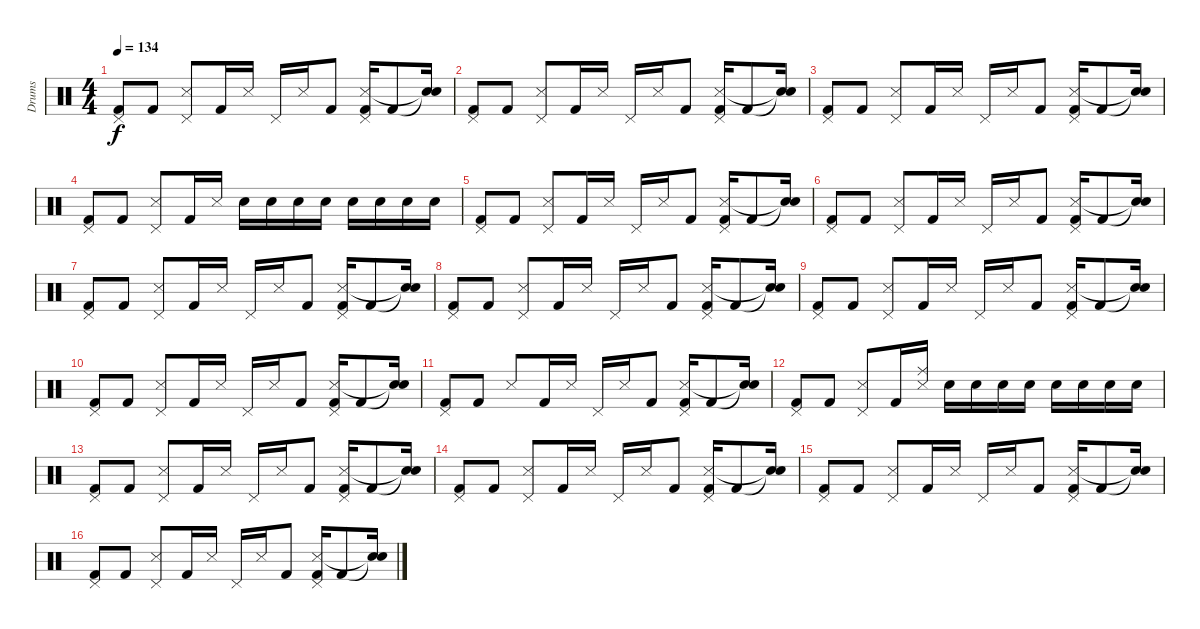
\track ("Drums" "Drums") {instrument percussion}
\staff {score}
\articulation defaults
\ts (4 4)
\tempo 134
\clef neutral
\ks c
("Pedal Hi-Hat (hit)" "Kick (hit) 2").8{dy f} "Kick (hit) 2".8 ("Snare (side stick) 3" "Pedal Hi-Hat (hit)").8 "Kick (hit) 2".16 "Snare (side stick) 3".16 "Pedal Hi-Hat (hit)".16 "Snare (side stick) 3".16 "Kick (hit) 2".8 ("Pedal Hi-Hat (hit)" "Snare (side stick) 3" "Kick (hit) 2").16 "Kick (hit) 2".8 ("Snare (hit)"{t} "Snare (hit)"{t}).16 |
("Pedal Hi-Hat (hit)" "Kick (hit) 2").8 "Kick (hit) 2".8 ("Snare (side stick) 3" "Pedal Hi-Hat (hit)").8 "Kick (hit) 2".16 "Snare (side stick) 3".16 "Pedal Hi-Hat (hit)".16 "Snare (side stick) 3".16 "Kick (hit) 2".8 ("Pedal Hi-Hat (hit)" "Snare (side stick) 3" "Kick (hit) 2").16 "Kick (hit) 2".8 ("Snare (hit)"{t} "Snare (hit)"{t}).16 |
("Pedal Hi-Hat (hit)" "Kick (hit) 2").8 "Kick (hit) 2".8 ("Snare (side stick) 3" "Pedal Hi-Hat (hit)").8 "Kick (hit) 2".16 "Snare (side stick) 3".16 "Pedal Hi-Hat (hit)".16 "Snare (side stick) 3".16 "Kick (hit) 2".8 ("Pedal Hi-Hat (hit)" "Snare (side stick) 3" "Kick (hit) 2").16 "Kick (hit) 2".8 ("Snare (hit)"{t} "Snare (hit)"{t}).16 |
("Pedal Hi-Hat (hit)" "Kick (hit) 2").8 "Kick (hit) 2".8 ("Snare (side stick) 3" "Pedal Hi-Hat (hit)").8 "Kick (hit) 2".16 "Snare (side stick) 3".16 "Electric Snare (hit)".16 "Electric Snare (hit)".16 "Electric Snare (hit)".16 "Electric Snare (hit)".16 "Electric Snare (hit)".16 "Electric Snare (hit)".16 "Electric Snare (hit)".16 "Electric Snare (hit)".16 |
("Pedal Hi-Hat (hit)" "Kick (hit) 2").8 "Kick (hit) 2".8 ("Snare (side stick) 3" "Pedal Hi-Hat (hit)").8 "Kick (hit) 2".16 "Snare (side stick) 3".16 "Pedal Hi-Hat (hit)".16 "Snare (side stick) 3".16 "Kick (hit) 2".8 ("Pedal Hi-Hat (hit)" "Snare (side stick) 3" "Kick (hit) 2").16 "Kick (hit) 2".8 ("Snare (hit)"{t} "Snare (hit)"{t}).16 |
("Pedal Hi-Hat (hit)" "Kick (hit) 2").8 "Kick (hit) 2".8 ("Snare (side stick) 3" "Pedal Hi-Hat (hit)").8 "Kick (hit) 2".16 "Snare (side stick) 3".16 "Pedal Hi-Hat (hit)".16 "Snare (side stick) 3".16 "Kick (hit) 2".8 ("Pedal Hi-Hat (hit)" "Snare (side stick) 3" "Kick (hit) 2").16 "Kick (hit) 2".8 ("Snare (hit)"{t} "Snare (hit)"{t}).16 |
("Pedal Hi-Hat (hit)" "Kick (hit) 2").8 "Kick (hit) 2".8 ("Snare (side stick) 3" "Pedal Hi-Hat (hit)").8 "Kick (hit) 2".16 "Snare (side stick) 3".16 "Pedal Hi-Hat (hit)".16 "Snare (side stick) 3".16 "Kick (hit) 2".8 ("Pedal Hi-Hat (hit)" "Snare (side stick) 3" "Kick (hit) 2").16 "Kick (hit) 2".8 ("Snare (hit)"{t} "Snare (hit)"{t}).16 |
("Pedal Hi-Hat (hit)" "Kick (hit) 2").8 "Kick (hit) 2".8 ("Snare (side stick) 3" "Pedal Hi-Hat (hit)").8 "Kick (hit) 2".16 "Snare (side stick) 3".16 "Pedal Hi-Hat (hit)".16 "Snare (side stick) 3".16 "Kick (hit) 2".8 ("Pedal Hi-Hat (hit)" "Snare (side stick) 3" "Kick (hit) 2").16 "Kick (hit) 2".8 ("Snare (hit)"{t} "Snare (hit)"{t}).16 |
("Pedal Hi-Hat (hit)" "Kick (hit) 2").8 "Kick (hit) 2".8 ("Snare (side stick) 3" "Pedal Hi-Hat (hit)").8 "Kick (hit) 2".16 "Snare (side stick) 3".16 "Pedal Hi-Hat (hit)".16 "Snare (side stick) 3".16 "Kick (hit) 2".8 ("Pedal Hi-Hat (hit)" "Snare (side stick) 3" "Kick (hit) 2").16 "Kick (hit) 2".8 ("Snare (hit)"{t} "Snare (hit)"{t}).16 |
("Pedal Hi-Hat (hit)" "Kick (hit) 2").8 "Kick (hit) 2".8 ("Snare (side stick) 3" "Pedal Hi-Hat (hit)").8 "Kick (hit) 2".16 "Snare (side stick) 3".16 "Pedal Hi-Hat (hit)".16 "Snare (side stick) 3".16 "Kick (hit) 2".8 ("Pedal Hi-Hat (hit)" "Snare (side stick) 3" "Kick (hit) 2").16 "Kick (hit) 2".8 ("Snare (hit)"{t} "Snare (hit)"{t}).16 |
("Pedal Hi-Hat (hit)" "Kick (hit) 2").8 "Kick (hit) 2".8 "Snare (side stick) 3".8 "Kick (hit) 2".16 "Snare (side stick) 3".16 "Pedal Hi-Hat (hit)".16 "Snare (side stick) 3".16 "Kick (hit) 2".8 ("Pedal Hi-Hat (hit)" "Snare (side stick) 3" "Kick (hit) 2").16 "Kick (hit) 2".8 ("Snare (hit)"{t} "Snare (hit)"{t}).16 |
("Pedal Hi-Hat (hit)" "Kick (hit) 2").8 "Kick (hit) 2".8 ("Snare (side stick) 3" "Pedal Hi-Hat (hit)").8 "Kick (hit) 2".16 ("Snare (side stick) 3" "Ride (middle)").16 "Electric Snare (hit)".16 "Electric Snare (hit)".16 "Electric Snare (hit)".16 "Electric Snare (hit)".16 "Electric Snare (hit)".16 "Electric Snare (hit)".16 "Electric Snare (hit)".16 "Electric Snare (hit)".16 |
("Pedal Hi-Hat (hit)" "Kick (hit) 2").8 "Kick (hit) 2".8 ("Snare (side stick) 3" "Pedal Hi-Hat (hit)").8 "Kick (hit) 2".16 "Snare (side stick) 3".16 "Pedal Hi-Hat (hit)".16 "Snare (side stick) 3".16 "Kick (hit) 2".8 ("Pedal Hi-Hat (hit)" "Snare (side stick) 3" "Kick (hit) 2").16 "Kick (hit) 2".8 ("Snare (hit)"{t} "Snare (hit)"{t}).16 |
("Pedal Hi-Hat (hit)" "Kick (hit) 2").8 "Kick (hit) 2".8 ("Snare (side stick) 3" "Pedal Hi-Hat (hit)").8 "Kick (hit) 2".16 "Snare (side stick) 3".16 "Pedal Hi-Hat (hit)".16 "Snare (side stick) 3".16 "Kick (hit) 2".8 ("Pedal Hi-Hat (hit)" "Snare (side stick) 3" "Kick (hit) 2").16 "Kick (hit) 2".8 ("Snare (hit)"{t} "Snare (hit)"{t}).16 |
("Pedal Hi-Hat (hit)" "Kick (hit) 2").8 "Kick (hit) 2".8 ("Snare (side stick) 3" "Pedal Hi-Hat (hit)").8 "Kick (hit) 2".16 "Snare (side stick) 3".16 "Pedal Hi-Hat (hit)".16 "Snare (side stick) 3".16 "Kick (hit) 2".8 ("Pedal Hi-Hat (hit)" "Snare (side stick) 3" "Kick (hit) 2").16 "Kick (hit) 2".8 ("Snare (hit)"{t} "Snare (hit)"{t}).16 |
("Pedal Hi-Hat (hit)" "Kick (hit) 2").8 "Kick (hit) 2".8 ("Snare (side stick) 3" "Pedal Hi-Hat (hit)").8 "Kick (hit) 2".16 "Snare (side stick) 3".16 "Pedal Hi-Hat (hit)".16 "Snare (side stick) 3".16 "Kick (hit) 2".8 ("Pedal Hi-Hat (hit)" "Snare (side stick) 3" "Kick (hit) 2").16 "Kick (hit) 2".8 ("Snare (hit)"{t} "Snare (hit)"{t}).16
